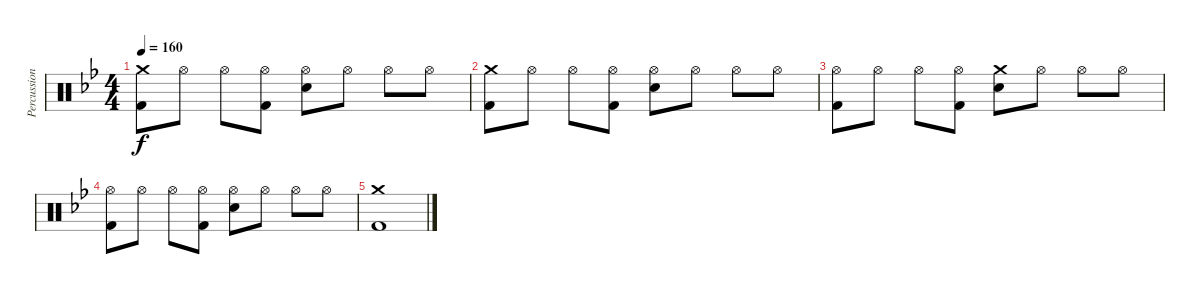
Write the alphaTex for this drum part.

\track ("Percussions" "Percussion") {instrument percussion}
\staff {score}
\articulation defaults
\ts (4 4)
\tempo 160
\clef neutral
\ks bb
("Crash medium (hit)" "Kick (hit) 2").8{dy f} "Hi-Hat (open)".8 "Hi-Hat (open)".8 ("Hi-Hat (open)" "Kick (hit) 2").8 ("Hi-Hat (open)" "Snare (hit) 2").8 "Hi-Hat (open)".8 "Hi-Hat (open)".8 "Hi-Hat (open)".8 |
("Crash medium (hit)" "Kick (hit) 2").8 "Hi-Hat (open)".8 "Hi-Hat (open)".8 ("Hi-Hat (open)" "Kick (hit) 2").8 ("Hi-Hat (open)" "Snare (hit) 2").8 "Hi-Hat (open)".8 "Hi-Hat (open)".8 "Hi-Hat (open)".8 |
("Hi-Hat (open)" "Kick (hit) 2").8 "Hi-Hat (open)".8 "Hi-Hat (open)".8 ("Hi-Hat (open)" "Kick (hit) 2").8 ("Crash medium (hit)" "Snare (hit) 2").8 "Hi-Hat (open)".8 "Hi-Hat (open)".8 "Hi-Hat (open)".8 |
("Hi-Hat (open)" "Kick (hit) 2").8 "Hi-Hat (open)".8 "Hi-Hat (open)".8 ("Hi-Hat (open)" "Kick (hit) 2").8 ("Hi-Hat (open)" "Snare (hit) 2").8 "Hi-Hat (open)".8 "Hi-Hat (open)".8 "Hi-Hat (open)".8 |
("Crash medium (hit)" "Kick (hit) 2").1
